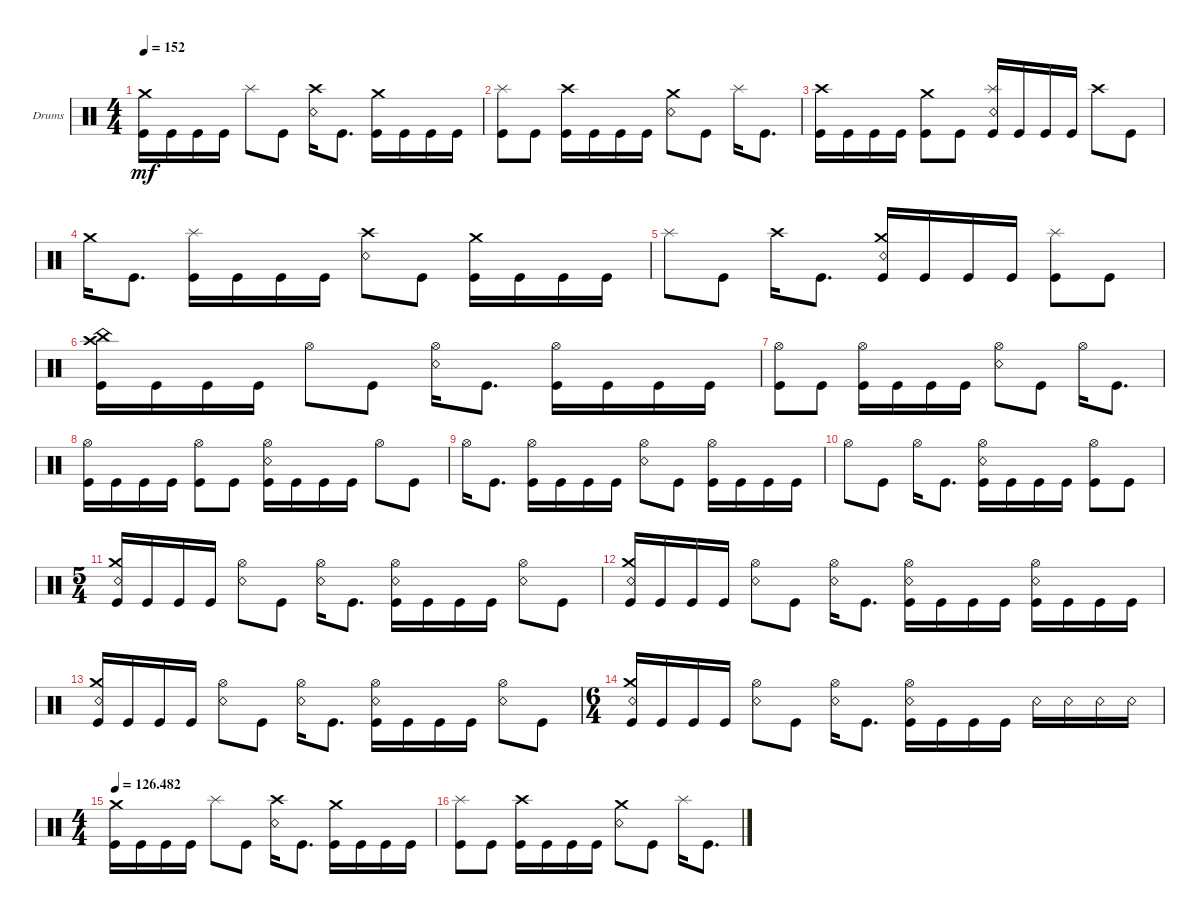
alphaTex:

\defaultSystemsLayout 4
\bracketExtendMode groupsimilarinstruments
\firstSystemTrackNameOrientation horizontal
\otherSystemsTrackNameOrientation horizontal
\track ("Drumkit" "Drums") {instrument percussion}
\staff {score}
\articulation defaults
\ts (4 4)
\tempo 152
\clef neutral
\ks c
("Kick (hit)" "Crash medium (hit)").16{dy mf} "Kick (hit)".16 "Kick (hit)".16 "Kick (hit)".16 "Splash (hit)".8 "Kick (hit)".8 ("Snare (rim shot)" "Crash high (hit)").16 "Kick (hit)".8{d} ("Kick (hit)" "Crash medium (hit)").16 "Kick (hit)".16 "Kick (hit)".16 "Kick (hit)".16 |
("Kick (hit)" "Splash (hit)").8 "Kick (hit)".8 ("Kick (hit)" "Crash high (hit)").16 "Kick (hit)".16 "Kick (hit)".16 "Kick (hit)".16 ("Snare (rim shot)" "Crash medium (hit)").8 "Kick (hit)".8 "Splash (hit)".16 "Kick (hit)".8{d} |
("Kick (hit)" "Crash high (hit)").16 "Kick (hit)".16 "Kick (hit)".16 "Kick (hit)".16 ("Kick (hit)" "Crash medium (hit)").8 "Kick (hit)".8 ("Kick (hit)" "Snare (rim shot)" "Splash (hit)").16 "Kick (hit)".16 "Kick (hit)".16 "Kick (hit)".16 "Crash high (hit)".8 "Kick (hit)".8 |
"Crash medium (hit)".16 "Kick (hit)".8{d} ("Kick (hit)" "Splash (hit)").16 "Kick (hit)".16 "Kick (hit)".16 "Kick (hit)".16 ("Snare (rim shot)" "Crash high (hit)").8 "Kick (hit)".8 ("Kick (hit)" "Crash medium (hit)").16 "Kick (hit)".16 "Kick (hit)".16 "Kick (hit)".16 |
"Splash (hit)".8 "Kick (hit)".8 "Crash high (hit)".16 "Kick (hit)".8{d} ("Kick (hit)" "Snare (rim shot)" "Crash medium (hit)").16 "Kick (hit)".16 "Kick (hit)".16 "Kick (hit)".16 ("Kick (hit)" "Splash (hit)").8 "Kick (hit)".8 |
("Kick (hit)" "China (hit)" "Crash high (hit)").16 "Kick (hit)".16 "Kick (hit)".16 "Kick (hit)".16 "Hi-Hat (open)".8 "Kick (hit)".8 ("Snare (rim shot)" "Hi-Hat (open)").16 "Kick (hit)".8{d} ("Kick (hit)" "Hi-Hat (open)").16 "Kick (hit)".16 "Kick (hit)".16 "Kick (hit)".16 |
("Kick (hit)" "Hi-Hat (open)").8 "Kick (hit)".8 ("Kick (hit)" "Hi-Hat (open)").16 "Kick (hit)".16 "Kick (hit)".16 "Kick (hit)".16 ("Snare (rim shot)" "Hi-Hat (open)").8 "Kick (hit)".8 "Hi-Hat (open)".16 "Kick (hit)".8{d} |
("Kick (hit)" "Hi-Hat (open)").16 "Kick (hit)".16 "Kick (hit)".16 "Kick (hit)".16 ("Kick (hit)" "Hi-Hat (open)").8 "Kick (hit)".8 ("Kick (hit)" "Snare (rim shot)" "Hi-Hat (open)").16 "Kick (hit)".16 "Kick (hit)".16 "Kick (hit)".16 "Hi-Hat (open)".8 "Kick (hit)".8 |
"Hi-Hat (open)".16 "Kick (hit)".8{d} ("Kick (hit)" "Hi-Hat (open)").16 "Kick (hit)".16 "Kick (hit)".16 "Kick (hit)".16 ("Snare (rim shot)" "Hi-Hat (open)").8 "Kick (hit)".8 ("Kick (hit)" "Hi-Hat (open)").16 "Kick (hit)".16 "Kick (hit)".16 "Kick (hit)".16 |
"Hi-Hat (open)".8 "Kick (hit)".8 "Hi-Hat (open)".16 "Kick (hit)".8{d} ("Kick (hit)" "Snare (rim shot)" "Hi-Hat (open)").16 "Kick (hit)".16 "Kick (hit)".16 "Kick (hit)".16 ("Kick (hit)" "Hi-Hat (open)").8 "Kick (hit)".8 |
\ts (5 4)
("Kick (hit)" "Snare (rim shot)" "Crash medium (hit)").16 "Kick (hit)".16 "Kick (hit)".16 "Kick (hit)".16 ("Snare (rim shot)" "Hi-Hat (open)").8 "Kick (hit)".8 ("Snare (rim shot)" "Hi-Hat (open)").16 "Kick (hit)".8{d} ("Kick (hit)" "Snare (rim shot)" "Hi-Hat (open)").16 "Kick (hit)".16 "Kick (hit)".16 "Kick (hit)".16 ("Snare (rim shot)" "Hi-Hat (open)").8 "Kick (hit)".8 |
("Kick (hit)" "Snare (rim shot)" "Crash medium (hit)").16 "Kick (hit)".16 "Kick (hit)".16 "Kick (hit)".16 ("Snare (rim shot)" "Hi-Hat (open)").8 "Kick (hit)".8 ("Snare (rim shot)" "Hi-Hat (open)").16 "Kick (hit)".8{d} ("Kick (hit)" "Snare (rim shot)" "Hi-Hat (open)").16 "Kick (hit)".16 "Kick (hit)".16 "Kick (hit)".16 ("Kick (hit)" "Snare (rim shot)" "Hi-Hat (open)").16 "Kick (hit)".16 "Kick (hit)".16 "Kick (hit)".16 |
("Kick (hit)" "Snare (rim shot)" "Crash medium (hit)").16 "Kick (hit)".16 "Kick (hit)".16 "Kick (hit)".16 ("Snare (rim shot)" "Hi-Hat (open)").8 "Kick (hit)".8 ("Snare (rim shot)" "Hi-Hat (open)").16 "Kick (hit)".8{d} ("Kick (hit)" "Snare (rim shot)" "Hi-Hat (open)").16 "Kick (hit)".16 "Kick (hit)".16 "Kick (hit)".16 ("Snare (rim shot)" "Hi-Hat (open)").8 "Kick (hit)".8 |
\ts (6 4)
("Kick (hit)" "Snare (rim shot)" "Crash medium (hit)").16 "Kick (hit)".16 "Kick (hit)".16 "Kick (hit)".16 ("Snare (rim shot)" "Hi-Hat (open)").8 "Kick (hit)".8 ("Snare (rim shot)" "Hi-Hat (open)").16 "Kick (hit)".8{d} ("Kick (hit)" "Snare (rim shot)" "Hi-Hat (open)").16 "Kick (hit)".16 "Kick (hit)".16 "Kick (hit)".16 "Snare (rim shot)".16 "Snare (rim shot)".16 "Snare (rim shot)".16 "Snare (rim shot)".16 |
\ts (4 4)
\tempo
126.482 ("Kick (hit)" "Crash medium (hit)").16 "Kick (hit)".16 "Kick (hit)".16 "Kick (hit)".16 "Splash (hit)".8 "Kick (hit)".8 ("Snare (rim shot)" "Crash high (hit)").16 "Kick (hit)".8{d} ("Kick (hit)" "Crash medium (hit)").16 "Kick (hit)".16 "Kick (hit)".16 "Kick (hit)".16 |
("Kick (hit)" "Splash (hit)").8 "Kick (hit)".8 ("Kick (hit)" "Crash high (hit)").16 "Kick (hit)".16 "Kick (hit)".16 "Kick (hit)".16 ("Snare (rim shot)" "Crash medium (hit)").8 "Kick (hit)".8 "Splash (hit)".16 "Kick (hit)".8{d}
